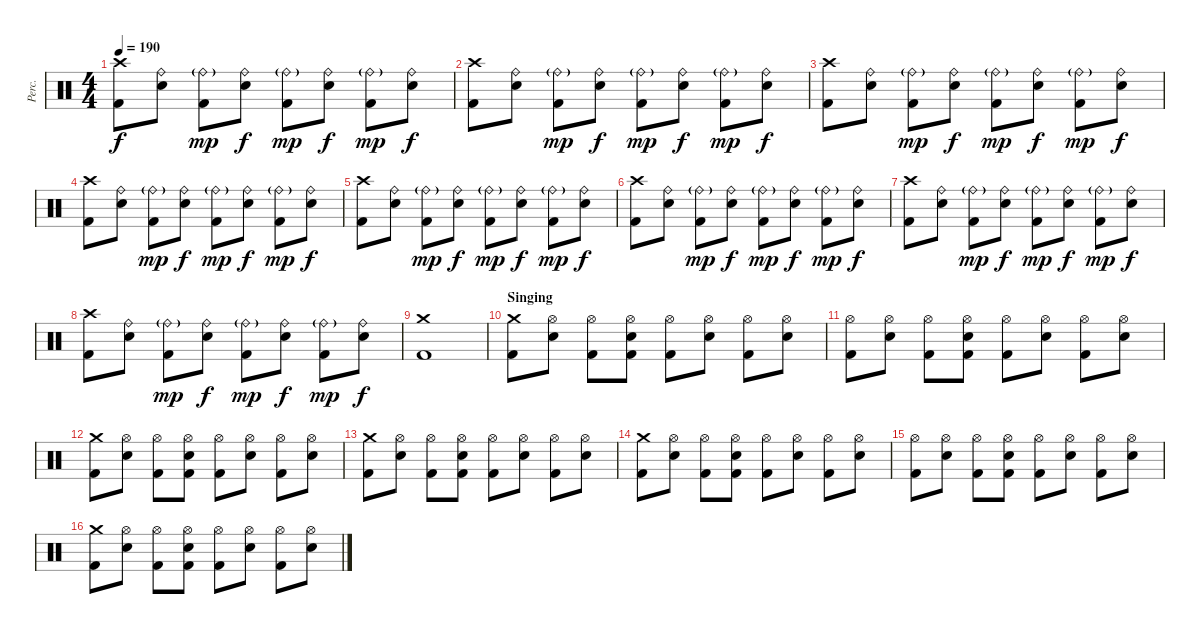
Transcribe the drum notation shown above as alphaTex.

\track ("Perc." "Perc.") {instrument percussion}
\staff {score}
\articulation defaults
\ts (4 4)
\tempo 190
\clef neutral
\ks c
("Crash high (hit)" "Kick (hit) 2").8{dy f} ("Ride (bell)" "Snare (hit) 2").8 ("Ride (bell)"{g} "Kick (hit) 2").8{dy mp} ("Ride (bell)" "Snare (hit) 2").8{dy f} ("Ride (bell)"{g} "Kick (hit) 2").8{dy mp} ("Ride (bell)" "Snare (hit) 2").8{dy f} ("Ride (bell)"{g} "Kick (hit) 2").8{dy mp} ("Ride (bell)" "Snare (hit) 2").8{dy f} |
("Crash high (hit)" "Kick (hit) 2").8 ("Ride (bell)" "Snare (hit) 2").8 ("Ride (bell)"{g} "Kick (hit) 2").8{dy mp} ("Ride (bell)" "Snare (hit) 2").8{dy f} ("Ride (bell)"{g} "Kick (hit) 2").8{dy mp} ("Ride (bell)" "Snare (hit) 2").8{dy f} ("Ride (bell)"{g} "Kick (hit) 2").8{dy mp} ("Ride (bell)" "Snare (hit) 2").8{dy f} |
("Crash high (hit)" "Kick (hit) 2").8 ("Ride (bell)" "Snare (hit) 2").8 ("Ride (bell)"{g} "Kick (hit) 2").8{dy mp} ("Ride (bell)" "Snare (hit) 2").8{dy f} ("Ride (bell)"{g} "Kick (hit) 2").8{dy mp} ("Ride (bell)" "Snare (hit) 2").8{dy f} ("Ride (bell)"{g} "Kick (hit) 2").8{dy mp} ("Ride (bell)" "Snare (hit) 2").8{dy f} |
("Crash high (hit)" "Kick (hit) 2").8 ("Ride (bell)" "Snare (hit) 2").8 ("Ride (bell)"{g} "Kick (hit) 2").8{dy mp} ("Ride (bell)" "Snare (hit) 2").8{dy f} ("Ride (bell)"{g} "Kick (hit) 2").8{dy mp} ("Ride (bell)" "Snare (hit) 2").8{dy f} ("Ride (bell)"{g} "Kick (hit) 2").8{dy mp} ("Ride (bell)" "Snare (hit) 2").8{dy f} |
("Crash high (hit)" "Kick (hit) 2").8 ("Ride (bell)" "Snare (hit) 2").8 ("Ride (bell)"{g} "Kick (hit) 2").8{dy mp} ("Ride (bell)" "Snare (hit) 2").8{dy f} ("Ride (bell)"{g} "Kick (hit) 2").8{dy mp} ("Ride (bell)" "Snare (hit) 2").8{dy f} ("Ride (bell)"{g} "Kick (hit) 2").8{dy mp} ("Ride (bell)" "Snare (hit) 2").8{dy f} |
("Crash high (hit)" "Kick (hit) 2").8 ("Ride (bell)" "Snare (hit) 2").8 ("Ride (bell)"{g} "Kick (hit) 2").8{dy mp} ("Ride (bell)" "Snare (hit) 2").8{dy f} ("Ride (bell)"{g} "Kick (hit) 2").8{dy mp} ("Ride (bell)" "Snare (hit) 2").8{dy f} ("Ride (bell)"{g} "Kick (hit) 2").8{dy mp} ("Ride (bell)" "Snare (hit) 2").8{dy f} |
("Crash high (hit)" "Kick (hit) 2").8 ("Ride (bell)" "Snare (hit) 2").8 ("Ride (bell)"{g} "Kick (hit) 2").8{dy mp} ("Ride (bell)" "Snare (hit) 2").8{dy f} ("Ride (bell)"{g} "Kick (hit) 2").8{dy mp} ("Ride (bell)" "Snare (hit) 2").8{dy f} ("Ride (bell)"{g} "Kick (hit) 2").8{dy mp} ("Ride (bell)" "Snare (hit) 2").8{dy f} |
("Crash high (hit)" "Kick (hit) 2").8 ("Ride (bell)" "Snare (hit) 2").8 ("Ride (bell)"{g} "Kick (hit) 2").8{dy mp} ("Ride (bell)" "Snare (hit) 2").8{dy f} ("Ride (bell)"{g} "Kick (hit) 2").8{dy mp} ("Ride (bell)" "Snare (hit) 2").8{dy f} ("Ride (bell)"{g} "Kick (hit) 2").8{dy mp} ("Ride (bell)" "Snare (hit) 2").8{dy f} |
("Crash medium (hit)" "Kick (hit) 2").1 |
\section ("" "Singing")
("Crash medium (hit)" "Kick (hit) 2").8 ("Hi-Hat (open)" "Snare (hit) 2").8 ("Hi-Hat (open)" "Kick (hit) 2").8 ("Hi-Hat (open)" "Snare (hit) 2" "Kick (hit) 2").8 ("Hi-Hat (open)" "Kick (hit) 2").8 ("Hi-Hat (open)" "Snare (hit) 2").8 ("Hi-Hat (open)" "Kick (hit) 2").8 ("Hi-Hat (open)" "Snare (hit) 2").8 |
("Hi-Hat (open)" "Kick (hit) 2").8 ("Hi-Hat (open)" "Snare (hit) 2").8 ("Hi-Hat (open)" "Kick (hit) 2").8 ("Hi-Hat (open)" "Snare (hit) 2" "Kick (hit) 2").8 ("Hi-Hat (open)" "Kick (hit) 2").8 ("Hi-Hat (open)" "Snare (hit) 2").8 ("Hi-Hat (open)" "Kick (hit) 2").8 ("Hi-Hat (open)" "Snare (hit) 2").8 |
("Crash medium (hit)" "Kick (hit) 2").8 ("Hi-Hat (open)" "Snare (hit) 2").8 ("Hi-Hat (open)" "Kick (hit) 2").8 ("Hi-Hat (open)" "Snare (hit) 2" "Kick (hit) 2").8 ("Hi-Hat (open)" "Kick (hit) 2").8 ("Hi-Hat (open)" "Snare (hit) 2").8 ("Hi-Hat (open)" "Kick (hit) 2").8 ("Hi-Hat (open)" "Snare (hit) 2").8 |
("Crash medium (hit)" "Kick (hit) 2").8 ("Hi-Hat (open)" "Snare (hit) 2").8 ("Hi-Hat (open)" "Kick (hit) 2").8 ("Hi-Hat (open)" "Snare (hit) 2" "Kick (hit) 2").8 ("Hi-Hat (open)" "Kick (hit) 2").8 ("Hi-Hat (open)" "Snare (hit) 2").8 ("Hi-Hat (open)" "Kick (hit) 2").8 ("Hi-Hat (open)" "Snare (hit) 2").8 |
("Crash medium (hit)" "Kick (hit) 2").8 ("Hi-Hat (open)" "Snare (hit) 2").8 ("Hi-Hat (open)" "Kick (hit) 2").8 ("Hi-Hat (open)" "Snare (hit) 2" "Kick (hit) 2").8 ("Hi-Hat (open)" "Kick (hit) 2").8 ("Hi-Hat (open)" "Snare (hit) 2").8 ("Hi-Hat (open)" "Kick (hit) 2").8 ("Hi-Hat (open)" "Snare (hit) 2").8 |
("Hi-Hat (open)" "Kick (hit) 2").8 ("Hi-Hat (open)" "Snare (hit) 2").8 ("Hi-Hat (open)" "Kick (hit) 2").8 ("Hi-Hat (open)" "Snare (hit) 2" "Kick (hit) 2").8 ("Hi-Hat (open)" "Kick (hit) 2").8 ("Hi-Hat (open)" "Snare (hit) 2").8 ("Hi-Hat (open)" "Kick (hit) 2").8 ("Hi-Hat (open)" "Snare (hit) 2").8 |
("Crash medium (hit)" "Kick (hit) 2").8 ("Hi-Hat (open)" "Snare (hit) 2").8 ("Hi-Hat (open)" "Kick (hit) 2").8 ("Hi-Hat (open)" "Snare (hit) 2" "Kick (hit) 2").8 ("Hi-Hat (open)" "Kick (hit) 2").8 ("Hi-Hat (open)" "Snare (hit) 2").8 ("Hi-Hat (open)" "Kick (hit) 2").8 ("Hi-Hat (open)" "Snare (hit) 2").8
